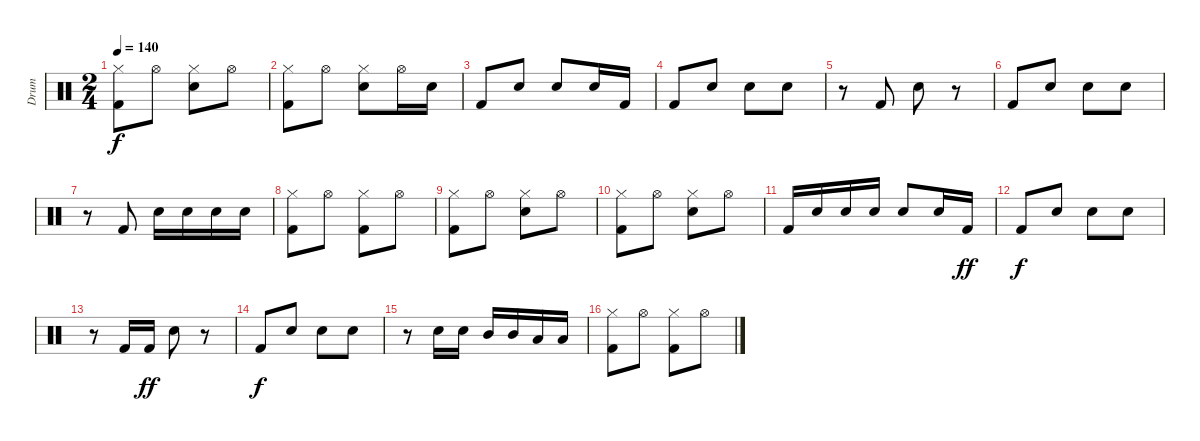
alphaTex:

\track ("Drum" "Drum") {instrument percussion}
\staff {score}
\articulation defaults
\ts (2 4)
\tempo 140
\clef neutral
\ks c
("Hi-Hat (closed)" "Kick (hit) 2").8{dy f} "Hi-Hat (open)".8 ("Hi-Hat (closed)" "Electric Snare (hit)").8 "Hi-Hat (open)".8 |
("Hi-Hat (closed)" "Kick (hit) 2").8 "Hi-Hat (open)".8 ("Hi-Hat (closed)" "Electric Snare (hit)").8 "Hi-Hat (open)".16 "Electric Snare (hit)".16 |
"Kick (hit) 2".8 "Electric Snare (hit)".8 "Electric Snare (hit)".8 "Electric Snare (hit)".16 "Kick (hit) 2".16 |
"Kick (hit) 2".8 "Electric Snare (hit)".8 "Electric Snare (hit)".8 "Electric Snare (hit)".8 |
r.8 "Kick (hit) 2".8 "Electric Snare (hit)".8 r.8 |
"Kick (hit) 2".8 "Electric Snare (hit)".8 "Electric Snare (hit)".8 "Electric Snare (hit)".8 |
r.8 "Kick (hit) 2".8 "Electric Snare (hit)".16 "Electric Snare (hit)".16 "Electric Snare (hit)".16 "Electric Snare (hit)".16 |
("Hi-Hat (closed)" "Kick (hit) 2").8 "Hi-Hat (open)".8 ("Hi-Hat (closed)" "Kick (hit) 2").8 "Hi-Hat (open)".8 |
("Hi-Hat (closed)" "Kick (hit) 2").8 "Hi-Hat (open)".8 ("Hi-Hat (closed)" "Electric Snare (hit)").8 "Hi-Hat (open)".8 |
("Hi-Hat (closed)" "Kick (hit) 2").8 "Hi-Hat (open)".8 ("Hi-Hat (closed)" "Electric Snare (hit)").8 "Hi-Hat (open)".8 |
"Kick (hit) 2".16 "Electric Snare (hit)".16 "Electric Snare (hit)".16 "Electric Snare (hit)".16 "Electric Snare (hit)".8 "Electric Snare (hit)".16 "Kick (hit) 2".16{dy ff} |
"Kick (hit) 2".8{dy f} "Electric Snare (hit)".8 "Electric Snare (hit)".8 "Electric Snare (hit)".8 |
r.8 "Kick (hit) 2".16 "Kick (hit) 2".16{dy ff} "Electric Snare (hit)".8 r.8 |
"Kick (hit) 2".8{dy f} "Electric Snare (hit)".8 "Electric Snare (hit)".8 "Electric Snare (hit)".8 |
r.8 "Electric Snare (hit)".16 "Electric Snare (hit)".16 "Mid Tom (hit)".16 "Mid Tom (hit)".16 "Low Tom (hit)".16 "Low Tom (hit)".16 |
("Hi-Hat (closed)" "Kick (hit) 2").8 "Hi-Hat (open)".8 ("Hi-Hat (closed)" "Kick (hit) 2").8 "Hi-Hat (open)".8
